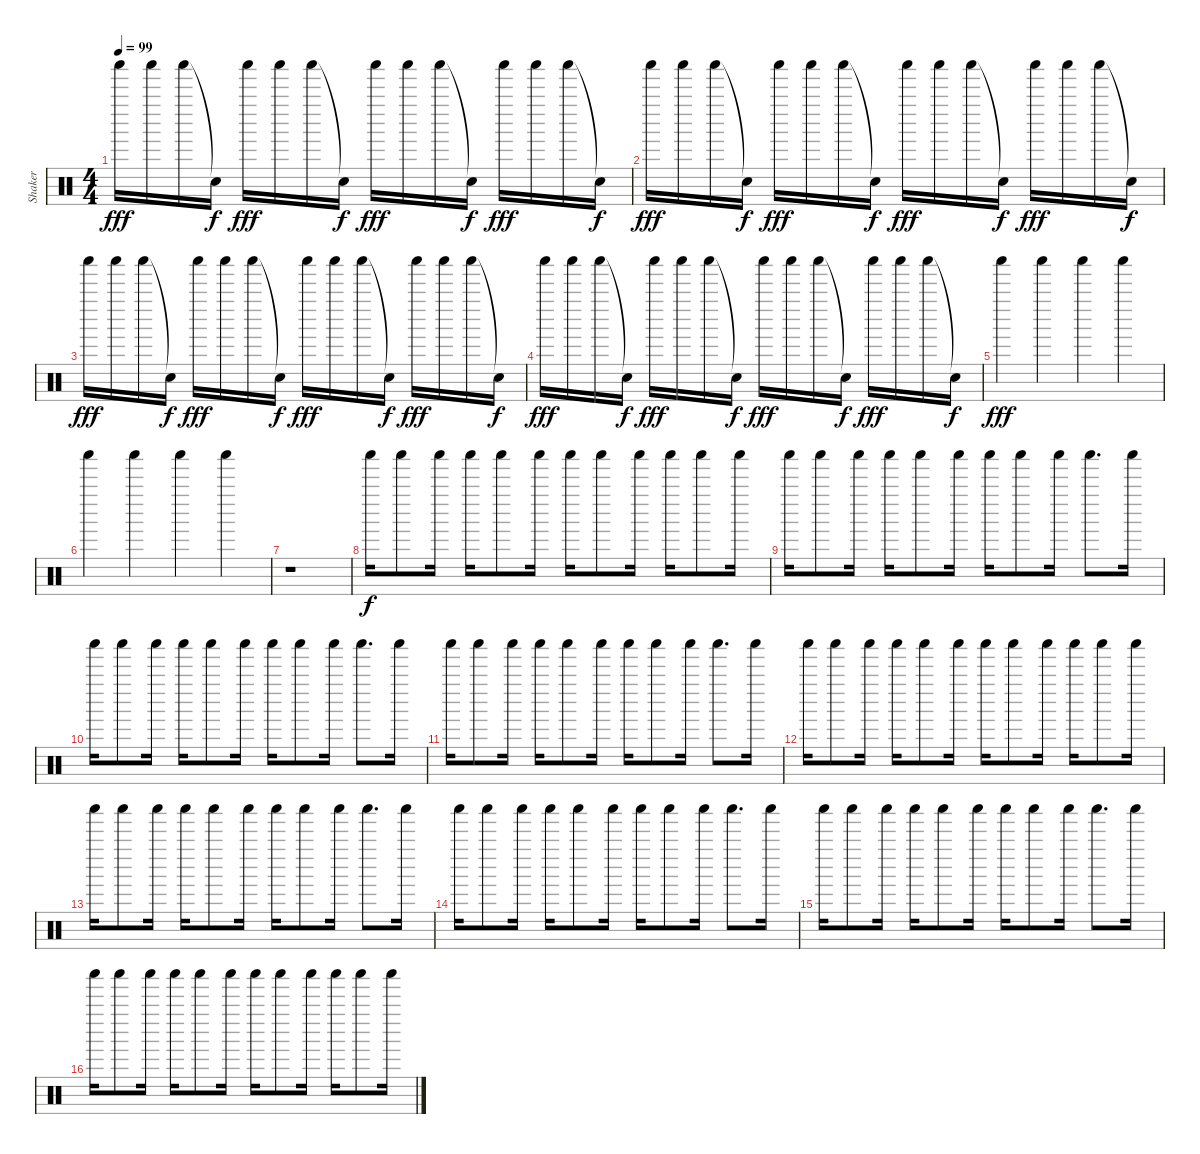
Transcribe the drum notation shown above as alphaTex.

\track ("Shaker" "Shaker") {instrument percussion}
\staff {score}
\articulation defaults
\ts (4 4)
\tempo 99
\clef neutral
\ks c "Shaker (hit)".16{dy fff} "Shaker (hit)".16 "Shaker (hit)".16 "Snare (hit)"{t}.16{dy f} "Shaker (hit)".16{dy fff} "Shaker (hit)".16 "Shaker (hit)".16 "Snare (hit)"{t}.16{dy f} "Shaker (hit)".16{dy fff} "Shaker (hit)".16 "Shaker (hit)".16 "Snare (hit)"{t}.16{dy f} "Shaker (hit)".16{dy fff} "Shaker (hit)".16 "Shaker (hit)".16 "Snare (hit)"{t}.16{dy f}
|
"Shaker (hit)".16{dy fff} "Shaker (hit)".16 "Shaker (hit)".16 "Snare (hit)"{t}.16{dy f} "Shaker (hit)".16{dy fff} "Shaker (hit)".16 "Shaker (hit)".16 "Snare (hit)"{t}.16{dy f} "Shaker (hit)".16{dy fff} "Shaker (hit)".16 "Shaker (hit)".16 "Snare (hit)"{t}.16{dy f} "Shaker (hit)".16{dy fff} "Shaker (hit)".16 "Shaker (hit)".16 "Snare (hit)"{t}.16{dy f} |
"Shaker (hit)".16{dy fff} "Shaker (hit)".16 "Shaker (hit)".16 "Snare (hit)"{t}.16{dy f} "Shaker (hit)".16{dy fff} "Shaker (hit)".16 "Shaker (hit)".16 "Snare (hit)"{t}.16{dy f} "Shaker (hit)".16{dy fff} "Shaker (hit)".16 "Shaker (hit)".16 "Snare (hit)"{t}.16{dy f} "Shaker (hit)".16{dy fff} "Shaker (hit)".16 "Shaker (hit)".16 "Snare (hit)"{t}.16{dy f} |
"Shaker (hit)".16{dy fff} "Shaker (hit)".16 "Shaker (hit)".16 "Snare (hit)"{t}.16{dy f} "Shaker (hit)".16{dy fff} "Shaker (hit)".16 "Shaker (hit)".16 "Snare (hit)"{t}.16{dy f} "Shaker (hit)".16{dy fff} "Shaker (hit)".16 "Shaker (hit)".16 "Snare (hit)"{t}.16{dy f} "Shaker (hit)".16{dy fff} "Shaker (hit)".16 "Shaker (hit)".16 "Snare (hit)"{t}.16{dy f} |
"Shaker (hit)".4{dy fff} "Shaker (hit)".4 "Shaker (hit)".4 "Shaker (hit)".4 |
"Shaker (hit)".4 "Shaker (hit)".4 "Shaker (hit)".4 "Shaker (hit)".4 |
r.1 |
"Shaker (hit)".16{dy f} "Shaker (hit)".8 "Shaker (hit)".16 "Shaker (hit)".16 "Shaker (hit)".8 "Shaker (hit)".16 "Shaker (hit)".16 "Shaker (hit)".8 "Shaker (hit)".16 "Shaker (hit)".16 "Shaker (hit)".8 "Shaker (hit)".16 |
"Shaker (hit)".16 "Shaker (hit)".8 "Shaker (hit)".16 "Shaker (hit)".16 "Shaker (hit)".8 "Shaker (hit)".16 "Shaker (hit)".16 "Shaker (hit)".8 "Shaker (hit)".16 "Shaker (hit)".8{d} "Shaker (hit)".16 |
"Shaker (hit)".16 "Shaker (hit)".8 "Shaker (hit)".16 "Shaker (hit)".16 "Shaker (hit)".8 "Shaker (hit)".16 "Shaker (hit)".16 "Shaker (hit)".8 "Shaker (hit)".16 "Shaker (hit)".8{d} "Shaker (hit)".16 |
"Shaker (hit)".16 "Shaker (hit)".8 "Shaker (hit)".16 "Shaker (hit)".16 "Shaker (hit)".8 "Shaker (hit)".16 "Shaker (hit)".16 "Shaker (hit)".8 "Shaker (hit)".16 "Shaker (hit)".8{d} "Shaker (hit)".16 |
"Shaker (hit)".16 "Shaker (hit)".8 "Shaker (hit)".16 "Shaker (hit)".16 "Shaker (hit)".8 "Shaker (hit)".16 "Shaker (hit)".16 "Shaker (hit)".8 "Shaker (hit)".16 "Shaker (hit)".16 "Shaker (hit)".8 "Shaker (hit)".16 |
"Shaker (hit)".16 "Shaker (hit)".8 "Shaker (hit)".16 "Shaker (hit)".16 "Shaker (hit)".8 "Shaker (hit)".16 "Shaker (hit)".16 "Shaker (hit)".8 "Shaker (hit)".16 "Shaker (hit)".8{d} "Shaker (hit)".16 |
"Shaker (hit)".16 "Shaker (hit)".8 "Shaker (hit)".16 "Shaker (hit)".16 "Shaker (hit)".8 "Shaker (hit)".16 "Shaker (hit)".16 "Shaker (hit)".8 "Shaker (hit)".16 "Shaker (hit)".8{d} "Shaker (hit)".16 |
"Shaker (hit)".16 "Shaker (hit)".8 "Shaker (hit)".16 "Shaker (hit)".16 "Shaker (hit)".8 "Shaker (hit)".16 "Shaker (hit)".16 "Shaker (hit)".8 "Shaker (hit)".16 "Shaker (hit)".8{d} "Shaker (hit)".16 |
"Shaker (hit)".16 "Shaker (hit)".8 "Shaker (hit)".16 "Shaker (hit)".16 "Shaker (hit)".8 "Shaker (hit)".16 "Shaker (hit)".16 "Shaker (hit)".8 "Shaker (hit)".16 "Shaker (hit)".16 "Shaker (hit)".8 "Shaker (hit)".16
